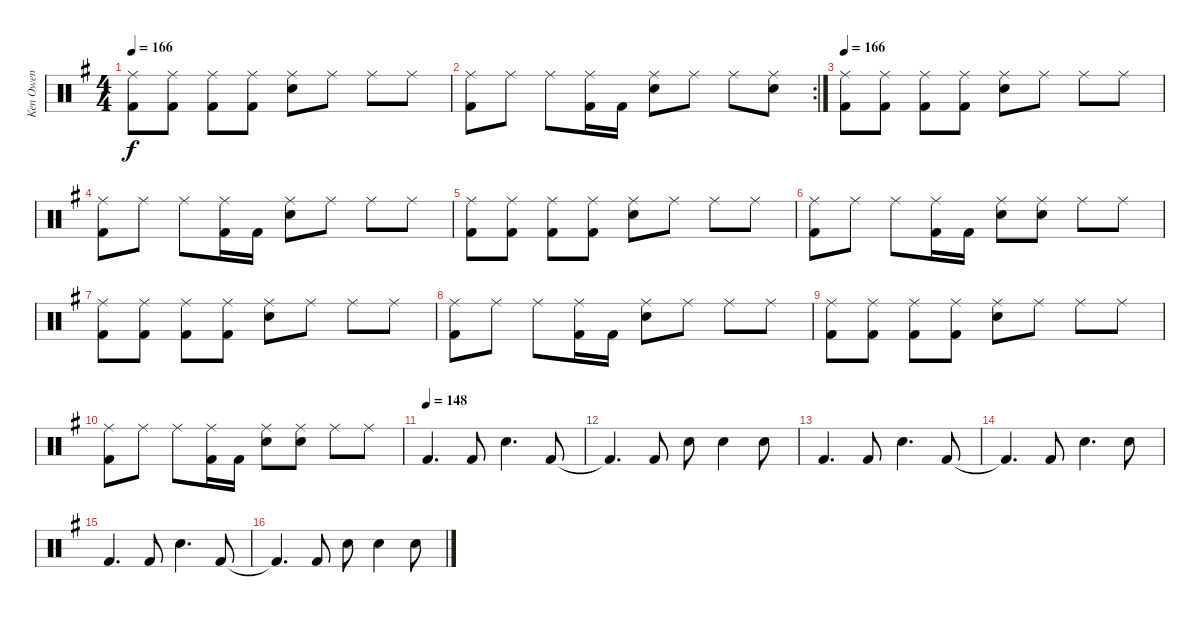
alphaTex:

\track ("Ken Owen" "Ken Owen") {instrument percussion}
\staff {score}
\articulation defaults
\ts (4 4)
\tempo 166
\clef neutral
\ks g
("Ride (middle)" "Kick (hit) 2").8{dy f} ("Ride (middle)" "Kick (hit) 2").8 ("Ride (middle)" "Kick (hit) 2").8 ("Ride (middle)" "Kick (hit) 2").8 ("Ride (middle)" "Snare (hit) 2").8 "Ride (middle)".8 "Ride (middle)".8 "Ride (middle)".8 |
\rc 2
("Ride (middle)" "Kick (hit) 2").8 "Ride (middle)".8 "Ride (middle)".8 ("Ride (middle)" "Kick (hit) 2").16 "Kick (hit) 2".16 ("Ride (middle)" "Snare (hit) 2").8 "Ride (middle)".8 "Ride (middle)".8 ("Ride (middle)" "Snare (hit) 2").8 |
\tempo 166
("Ride (middle)" "Kick (hit) 2").8 ("Ride (middle)" "Kick (hit) 2").8 ("Ride (middle)" "Kick (hit) 2").8 ("Ride (middle)" "Kick (hit) 2").8 ("Ride (middle)" "Snare (hit) 2").8 "Ride (middle)".8 "Ride (middle)".8 "Ride (middle)".8 |
("Ride (middle)" "Kick (hit) 2").8 "Ride (middle)".8 "Ride (middle)".8 ("Ride (middle)" "Kick (hit) 2").16 "Kick (hit) 2".16 ("Ride (middle)" "Snare (hit) 2").8 "Ride (middle)".8 "Ride (middle)".8 "Ride (middle)".8 |
("Ride (middle)" "Kick (hit) 2").8 ("Ride (middle)" "Kick (hit) 2").8 ("Ride (middle)" "Kick (hit) 2").8 ("Ride (middle)" "Kick (hit) 2").8 ("Ride (middle)" "Snare (hit) 2").8 "Ride (middle)".8 "Ride (middle)".8 "Ride (middle)".8 |
("Ride (middle)" "Kick (hit) 2").8 "Ride (middle)".8 "Ride (middle)".8 ("Ride (middle)" "Kick (hit) 2").16 "Kick (hit) 2".16 ("Ride (middle)" "Snare (hit) 2").8 ("Ride (middle)" "Snare (hit) 2").8 "Ride (middle)".8 "Ride (middle)".8 |
("Ride (middle)" "Kick (hit) 2").8 ("Ride (middle)" "Kick (hit) 2").8 ("Ride (middle)" "Kick (hit) 2").8 ("Ride (middle)" "Kick (hit) 2").8 ("Ride (middle)" "Snare (hit) 2").8 "Ride (middle)".8 "Ride (middle)".8 "Ride (middle)".8 |
("Ride (middle)" "Kick (hit) 2").8 "Ride (middle)".8 "Ride (middle)".8 ("Ride (middle)" "Kick (hit) 2").16 "Kick (hit) 2".16 ("Ride (middle)" "Snare (hit) 2").8 "Ride (middle)".8 "Ride (middle)".8 "Ride (middle)".8 |
("Ride (middle)" "Kick (hit) 2").8 ("Ride (middle)" "Kick (hit) 2").8 ("Ride (middle)" "Kick (hit) 2").8 ("Ride (middle)" "Kick (hit) 2").8 ("Ride (middle)" "Snare (hit) 2").8 "Ride (middle)".8 "Ride (middle)".8 "Ride (middle)".8 |
("Ride (middle)" "Kick (hit) 2").8 "Ride (middle)".8 "Ride (middle)".8 ("Ride (middle)" "Kick (hit) 2").16 "Kick (hit) 2".16 ("Ride (middle)" "Snare (hit) 2").8 ("Ride (middle)" "Snare (hit) 2").8 "Ride (middle)".8 "Ride (middle)".8 |
\tempo (148)
"Kick (hit) 2".4{d} "Kick (hit) 2".8 "Snare (hit) 2".4{d} "Kick (hit) 2".8 |
"Kick (hit) 2"{t}.4{d} "Kick (hit) 2".8 "Snare (hit) 2".8 "Snare (hit) 2".4 "Snare (hit) 2".8 |
"Kick (hit) 2".4{d} "Kick (hit) 2".8 "Snare (hit) 2".4{d} "Kick (hit) 2".8 |
"Kick (hit) 2"{t}.4{d} "Kick (hit) 2".8 "Snare (hit) 2".4{d} "Snare (hit) 2".8 |
"Kick (hit) 2".4{d} "Kick (hit) 2".8 "Snare (hit) 2".4{d} "Kick (hit) 2".8 |
"Kick (hit) 2"{t}.4{d} "Kick (hit) 2".8 "Snare (hit) 2".8 "Snare (hit) 2".4 "Snare (hit) 2".8
